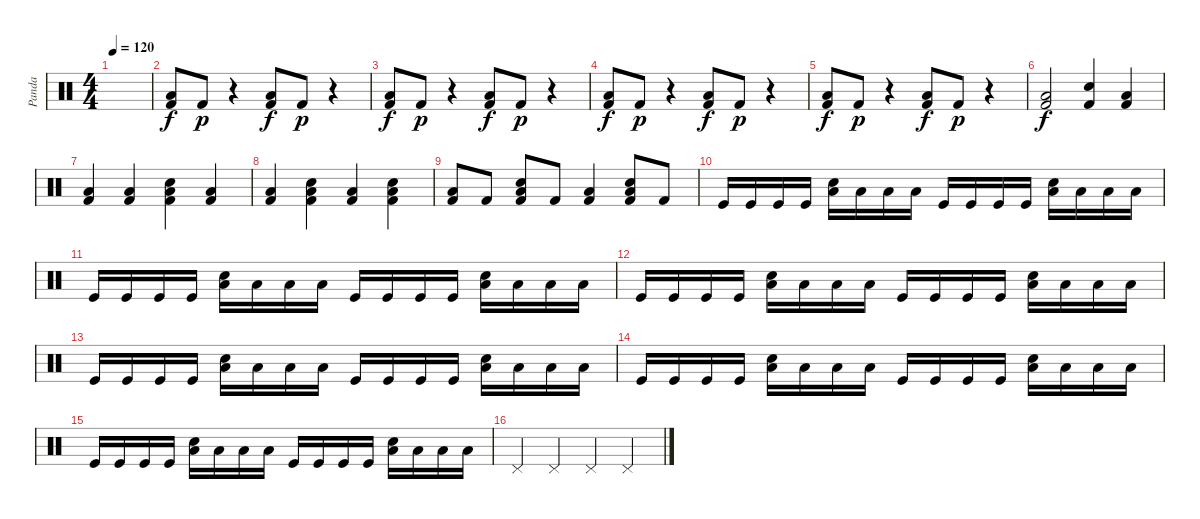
\track ("Panda" "Panda") {instrument percussion}
\staff {score}
\articulation defaults
\ts (4 4)
\tempo 120
\clef neutral
\ks c
|
("Low Floor Tom (hit)" "Kick (hit) 2").8 "Kick (hit) 2".8{dy p} r.4 ("Low Floor Tom (hit)" "Kick (hit) 2").8{dy f} "Kick (hit) 2".8{dy p} r.4 |
("Low Floor Tom (hit)" "Kick (hit) 2").8{dy f} "Kick (hit) 2".8{dy p} r.4 ("Low Floor Tom (hit)" "Kick (hit) 2").8{dy f} "Kick (hit) 2".8{dy p} r.4 |
("Low Floor Tom (hit)" "Kick (hit) 2").8{dy f} "Kick (hit) 2".8{dy p} r.4 ("Low Floor Tom (hit)" "Kick (hit) 2").8{dy f} "Kick (hit) 2".8{dy p} r.4 |
("Low Floor Tom (hit)" "Kick (hit) 2").8{dy f} "Kick (hit) 2".8{dy p} r.4 ("Low Floor Tom (hit)" "Kick (hit) 2").8{dy f} "Kick (hit) 2".8{dy p} r.4 |
("Low Floor Tom (hit)" "Kick (hit) 2").2{dy f} ("Electric Snare (hit)" "Kick (hit) 2").4 ("Low Floor Tom (hit)" "Kick (hit) 2").4 |
("Low Floor Tom (hit)" "Kick (hit) 2").4 ("Low Floor Tom (hit)" "Kick (hit) 2").4 ("Electric Snare (hit)" "Low Floor Tom (hit)" "Kick (hit) 2").4 ("Low Floor Tom (hit)" "Kick (hit) 2").4 |
("Low Floor Tom (hit)" "Kick (hit) 2").4 ("Electric Snare (hit)" "Low Floor Tom (hit)" "Kick (hit) 2").4 ("Low Floor Tom (hit)" "Kick (hit) 2").4 ("Electric Snare (hit)" "Low Floor Tom (hit)" "Kick (hit) 2").4 |
("Low Floor Tom (hit)" "Kick (hit) 2").8 "Kick (hit) 2".8 ("Electric Snare (hit)" "Low Floor Tom (hit)" "Kick (hit) 2").8 "Kick (hit) 2".8 ("Low Floor Tom (hit)" "Kick (hit) 2").4 ("Electric Snare (hit)" "Low Floor Tom (hit)" "Kick (hit) 2").8 "Kick (hit) 2".8 |
"Kick (hit)".16 "Kick (hit)".16 "Kick (hit)".16 "Kick (hit)".16 ("Electric Snare (hit)" "Low Floor Tom (hit)").16 "Low Floor Tom (hit)".16 "Low Floor Tom (hit)".16 "Low Floor Tom (hit)".16 "Kick (hit)".16 "Kick (hit)".16 "Kick (hit)".16 "Kick (hit)".16 ("Electric Snare (hit)" "Low Floor Tom (hit)").16 "Low Floor Tom (hit)".16 "Low Floor Tom (hit)".16 "Low Floor Tom (hit)".16 |
"Kick (hit)".16 "Kick (hit)".16 "Kick (hit)".16 "Kick (hit)".16 ("Electric Snare (hit)" "Low Floor Tom (hit)").16 "Low Floor Tom (hit)".16 "Low Floor Tom (hit)".16 "Low Floor Tom (hit)".16 "Kick (hit)".16 "Kick (hit)".16 "Kick (hit)".16 "Kick (hit)".16 ("Electric Snare (hit)" "Low Floor Tom (hit)").16 "Low Floor Tom (hit)".16 "Low Floor Tom (hit)".16 "Low Floor Tom (hit)".16 |
"Kick (hit)".16 "Kick (hit)".16 "Kick (hit)".16 "Kick (hit)".16 ("Electric Snare (hit)" "Low Floor Tom (hit)").16 "Low Floor Tom (hit)".16 "Low Floor Tom (hit)".16 "Low Floor Tom (hit)".16 "Kick (hit)".16 "Kick (hit)".16 "Kick (hit)".16 "Kick (hit)".16 ("Electric Snare (hit)" "Low Floor Tom (hit)").16 "Low Floor Tom (hit)".16 "Low Floor Tom (hit)".16 "Low Floor Tom (hit)".16 |
"Kick (hit)".16 "Kick (hit)".16 "Kick (hit)".16 "Kick (hit)".16 ("Electric Snare (hit)" "Low Floor Tom (hit)").16 "Low Floor Tom (hit)".16 "Low Floor Tom (hit)".16 "Low Floor Tom (hit)".16 "Kick (hit)".16 "Kick (hit)".16 "Kick (hit)".16 "Kick (hit)".16 ("Electric Snare (hit)" "Low Floor Tom (hit)").16 "Low Floor Tom (hit)".16 "Low Floor Tom (hit)".16 "Low Floor Tom (hit)".16 |
"Kick (hit)".16 "Kick (hit)".16 "Kick (hit)".16 "Kick (hit)".16 ("Electric Snare (hit)" "Low Floor Tom (hit)").16 "Low Floor Tom (hit)".16 "Low Floor Tom (hit)".16 "Low Floor Tom (hit)".16 "Kick (hit)".16 "Kick (hit)".16 "Kick (hit)".16 "Kick (hit)".16 ("Electric Snare (hit)" "Low Floor Tom (hit)").16 "Low Floor Tom (hit)".16 "Low Floor Tom (hit)".16 "Low Floor Tom (hit)".16 |
"Kick (hit)".16 "Kick (hit)".16 "Kick (hit)".16 "Kick (hit)".16 ("Electric Snare (hit)" "Low Floor Tom (hit)").16 "Low Floor Tom (hit)".16 "Low Floor Tom (hit)".16 "Low Floor Tom (hit)".16 "Kick (hit)".16 "Kick (hit)".16 "Kick (hit)".16 "Kick (hit)".16 ("Electric Snare (hit)" "Low Floor Tom (hit)").16 "Low Floor Tom (hit)".16 "Low Floor Tom (hit)".16 "Low Floor Tom (hit)".16 |
"Pedal Hi-Hat (hit)".4 "Pedal Hi-Hat (hit)".4 "Pedal Hi-Hat (hit)".4 "Pedal Hi-Hat (hit)".4
